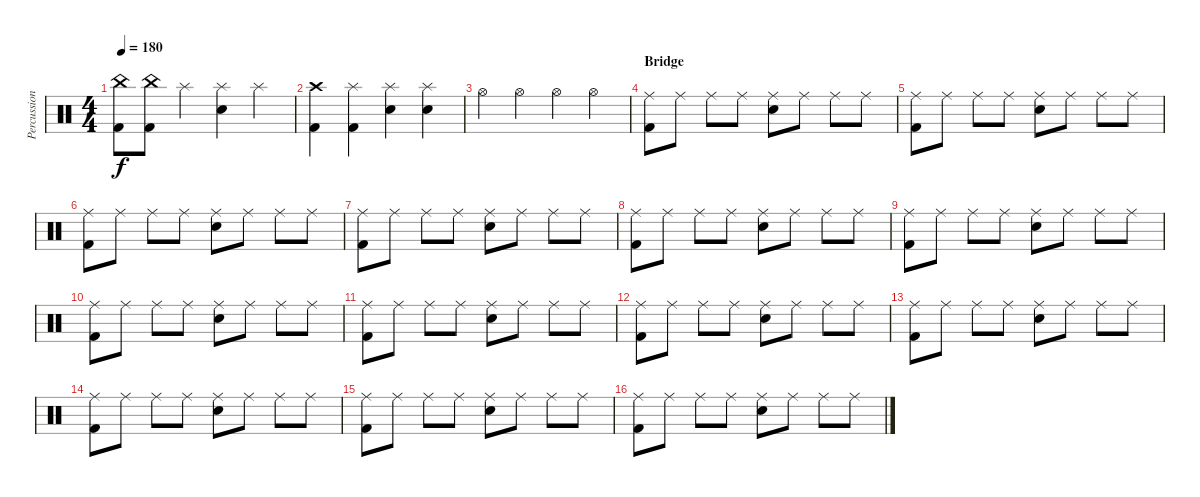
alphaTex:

\track ("Percussion" "Percussion") {instrument percussion}
\staff {score}
\articulation defaults
\ts (4 4)
\tempo 180
\clef neutral
\ks c
("China (hit)" "Kick (hit) 2").8{dy f} ("China (hit)" "Kick (hit) 2").8 "Splash (hit)".4 ("Splash (hit)" "Snare (hit) 2").4 "Splash (hit)".4 |
("Crash high (hit)" "Kick (hit) 2").4 ("Splash (hit)" "Kick (hit) 2").4 ("Splash (hit)" "Snare (hit) 2").4 ("Splash (hit)" "Snare (hit) 2").4 |
"Hi-Hat (open)".4 "Hi-Hat (open)".4 "Hi-Hat (open)".4 "Hi-Hat (open)".4 |
\section ("" "Bridge")
("Ride (middle)" "Kick (hit) 2").8 "Ride (middle)".8 "Ride (middle)".8 "Ride (middle)".8 ("Ride (middle)" "Snare (hit) 2").8 "Ride (middle)".8 "Ride (middle)".8 "Ride (middle)".8 |
("Ride (middle)" "Kick (hit) 2").8 "Ride (middle)".8 "Ride (middle)".8 "Ride (middle)".8 ("Ride (middle)" "Snare (hit) 2").8 "Ride (middle)".8 "Ride (middle)".8 "Ride (middle)".8 |
("Ride (middle)" "Kick (hit) 2").8 "Ride (middle)".8 "Ride (middle)".8 "Ride (middle)".8 ("Ride (middle)" "Snare (hit) 2").8 "Ride (middle)".8 "Ride (middle)".8 "Ride (middle)".8 |
("Ride (middle)" "Kick (hit) 2").8 "Ride (middle)".8 "Ride (middle)".8 "Ride (middle)".8 ("Ride (middle)" "Snare (hit) 2").8 "Ride (middle)".8 "Ride (middle)".8 "Ride (middle)".8 |
("Ride (middle)" "Kick (hit) 2").8 "Ride (middle)".8 "Ride (middle)".8 "Ride (middle)".8 ("Ride (middle)" "Snare (hit) 2").8 "Ride (middle)".8 "Ride (middle)".8 "Ride (middle)".8 |
("Ride (middle)" "Kick (hit) 2").8 "Ride (middle)".8 "Ride (middle)".8 "Ride (middle)".8 ("Ride (middle)" "Snare (hit) 2").8 "Ride (middle)".8 "Ride (middle)".8 "Ride (middle)".8 |
("Ride (middle)" "Kick (hit) 2").8 "Ride (middle)".8 "Ride (middle)".8 "Ride (middle)".8 ("Ride (middle)" "Snare (hit) 2").8 "Ride (middle)".8 "Ride (middle)".8 "Ride (middle)".8 |
("Ride (middle)" "Kick (hit) 2").8 "Ride (middle)".8 "Ride (middle)".8 "Ride (middle)".8 ("Ride (middle)" "Snare (hit) 2").8 "Ride (middle)".8 "Ride (middle)".8 "Ride (middle)".8 |
("Ride (middle)" "Kick (hit) 2").8 "Ride (middle)".8 "Ride (middle)".8 "Ride (middle)".8 ("Ride (middle)" "Snare (hit) 2").8 "Ride (middle)".8 "Ride (middle)".8 "Ride (middle)".8 |
("Ride (middle)" "Kick (hit) 2").8 "Ride (middle)".8 "Ride (middle)".8 "Ride (middle)".8 ("Ride (middle)" "Snare (hit) 2").8 "Ride (middle)".8 "Ride (middle)".8 "Ride (middle)".8 |
("Ride (middle)" "Kick (hit) 2").8 "Ride (middle)".8 "Ride (middle)".8 "Ride (middle)".8 ("Ride (middle)" "Snare (hit) 2").8 "Ride (middle)".8 "Ride (middle)".8 "Ride (middle)".8 |
("Ride (middle)" "Kick (hit) 2").8 "Ride (middle)".8 "Ride (middle)".8 "Ride (middle)".8 ("Ride (middle)" "Snare (hit) 2").8 "Ride (middle)".8 "Ride (middle)".8 "Ride (middle)".8 |
("Ride (middle)" "Kick (hit) 2").8 "Ride (middle)".8 "Ride (middle)".8 "Ride (middle)".8 ("Ride (middle)" "Snare (hit) 2").8 "Ride (middle)".8 "Ride (middle)".8 "Ride (middle)".8
